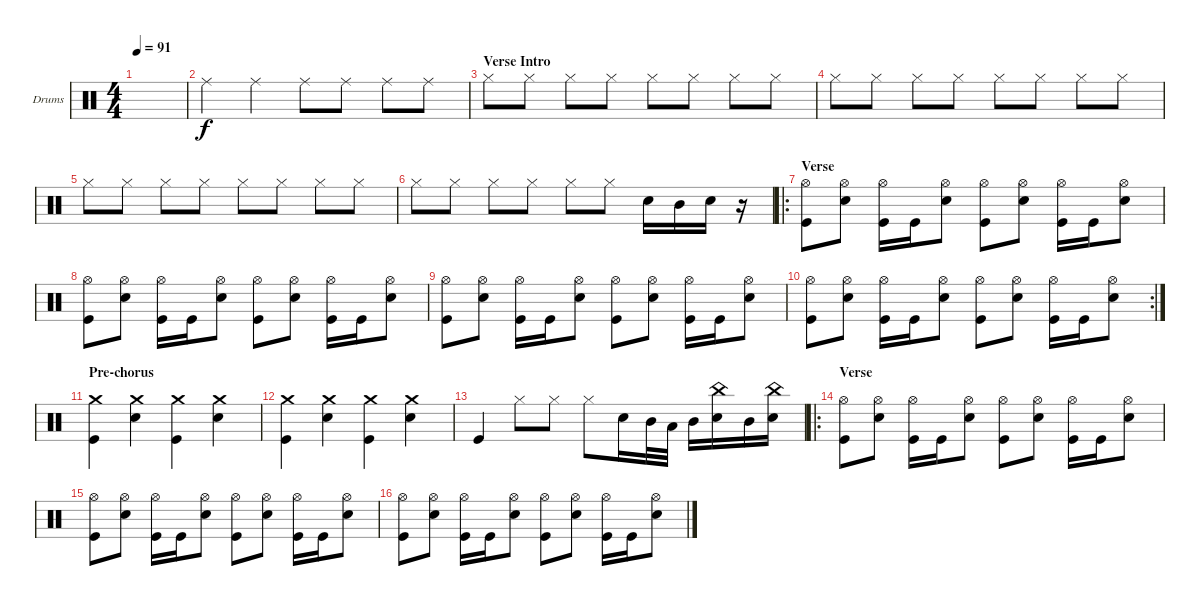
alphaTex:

\defaultSystemsLayout 4
\bracketExtendMode groupsimilarinstruments
\firstSystemTrackNameOrientation horizontal
\otherSystemsTrackNameOrientation horizontal
\track ("Drumkit" "Drums") {instrument percussion}
\staff {score}
\articulation defaults
\ts (4 4)
\tempo 91
\clef neutral
\scale
0.333333
\ks c
|
\scale
0.333333 "Ride (middle)".4 "Ride (middle)".4 "Ride (middle)".8 "Ride (middle)".8 "Ride (middle)".8 "Ride (middle)".8 |
\section ("" "Verse Intro")
\scale
0.333333 "Hi-Hat (closed)".8 "Hi-Hat (closed)".8 "Hi-Hat (closed)".8 "Hi-Hat (closed)".8 "Hi-Hat (closed)".8 "Hi-Hat (closed)".8 "Hi-Hat (closed)".8 "Hi-Hat (closed)".8 |
\scale
0.333333 "Hi-Hat (closed)".8 "Hi-Hat (closed)".8 "Hi-Hat (closed)".8 "Hi-Hat (closed)".8 "Hi-Hat (closed)".8 "Hi-Hat (closed)".8 "Hi-Hat (closed)".8 "Hi-Hat (closed)".8 |
\scale
0.333333 "Hi-Hat (closed)".8 "Hi-Hat (closed)".8 "Hi-Hat (closed)".8 "Hi-Hat (closed)".8 "Hi-Hat (closed)".8 "Hi-Hat (closed)".8 "Hi-Hat (closed)".8 "Hi-Hat (closed)".8 |
\scale
0.311475 "Hi-Hat (closed)".8 "Hi-Hat (closed)".8 "Hi-Hat (closed)".8 "Hi-Hat (closed)".8 "Hi-Hat (closed)".8 "Hi-Hat (closed)".8 "Snare (hit) 2".16 "Mid Tom (hit)".16 "Snare (hit) 2".16 r.16 |
\ro
\section ("" "Verse")
\scale
0.377049 ("Kick (hit)" "Hi-Hat (open)").8 ("Snare (hit) 2" "Hi-Hat (open)").8 ("Kick (hit)" "Hi-Hat (open)").16 "Kick (hit)".16 ("Snare (hit) 2" "Hi-Hat (open)").8 ("Kick (hit)" "Hi-Hat (open)").8 ("Snare (hit) 2" "Hi-Hat (open)").8 ("Kick (hit)" "Hi-Hat (open)").16 "Kick (hit)".16 ("Snare (hit) 2" "Hi-Hat (open)").8 |
\scale
0.311475 ("Kick (hit)" "Hi-Hat (open)").8 ("Snare (hit) 2" "Hi-Hat (open)").8 ("Kick (hit)" "Hi-Hat (open)").16 "Kick (hit)".16 ("Snare (hit) 2" "Hi-Hat (open)").8 ("Kick (hit)" "Hi-Hat (open)").8 ("Snare (hit) 2" "Hi-Hat (open)").8 ("Kick (hit)" "Hi-Hat (open)").16 "Kick (hit)".16 ("Snare (hit) 2" "Hi-Hat (open)").8 |
\scale
0.322034 ("Kick (hit)" "Hi-Hat (open)").8 ("Snare (hit) 2" "Hi-Hat (open)").8 ("Kick (hit)" "Hi-Hat (open)").16 "Kick (hit)".16 ("Snare (hit) 2" "Hi-Hat (open)").8 ("Kick (hit)" "Hi-Hat (open)").8 ("Snare (hit) 2" "Hi-Hat (open)").8 ("Kick (hit)" "Hi-Hat (open)").16 "Kick (hit)".16 ("Snare (hit) 2" "Hi-Hat (open)").8 |
\rc 2
\scale
0.355932 ("Kick (hit)" "Hi-Hat (open)").8 ("Snare (hit) 2" "Hi-Hat (open)").8 ("Kick (hit)" "Hi-Hat (open)").16 "Kick (hit)".16 ("Snare (hit) 2" "Hi-Hat (open)").8 ("Kick (hit)" "Hi-Hat (open)").8 ("Snare (hit) 2" "Hi-Hat (open)").8 ("Kick (hit)" "Hi-Hat (open)").16 "Kick (hit)".16 ("Snare (hit) 2" "Hi-Hat (open)").8 |
\section ("" "Pre-chorus")
\scale
0.322034 ("Kick (hit)" "Crash medium (hit)").4 ("Snare (hit) 2" "Crash medium (hit)").4 ("Kick (hit)" "Crash medium (hit)").4 ("Snare (hit) 2" "Crash medium (hit)").4 |
\scale
0.311475 ("Kick (hit)" "Crash medium (hit)").4 ("Snare (hit) 2" "Crash medium (hit)").4 ("Kick (hit)" "Crash medium (hit)").4 ("Snare (hit) 2" "Crash medium (hit)").4 |
\scale
0.311475 "Kick (hit)".4 "Hi-Hat (closed)".8 "Hi-Hat (closed)".8 "Hi-Hat (closed)".8 "Snare (hit) 2".16 "Mid Tom (hit)".32 "Low Tom (hit)".32 "Mid Tom (hit)".16 ("Snare (hit) 2" "China (hit)").16 "Mid Tom (hit)".16 ("Snare (hit) 2" "China (hit)").16 |
\ro
\section ("" "Verse")
\scale
0.377049 ("Kick (hit)" "Hi-Hat (open)").8 ("Snare (hit) 2" "Hi-Hat (open)").8 ("Kick (hit)" "Hi-Hat (open)").16 "Kick (hit)".16 ("Snare (hit) 2" "Hi-Hat (open)").8 ("Kick (hit)" "Hi-Hat (open)").8 ("Snare (hit) 2" "Hi-Hat (open)").8 ("Kick (hit)" "Hi-Hat (open)").16 "Kick (hit)".16 ("Snare (hit) 2" "Hi-Hat (open)").8 |
\scale
0.322034 ("Kick (hit)" "Hi-Hat (open)").8 ("Snare (hit) 2" "Hi-Hat (open)").8 ("Kick (hit)" "Hi-Hat (open)").16 "Kick (hit)".16 ("Snare (hit) 2" "Hi-Hat (open)").8 ("Kick (hit)" "Hi-Hat (open)").8 ("Snare (hit) 2" "Hi-Hat (open)").8 ("Kick (hit)" "Hi-Hat (open)").16 "Kick (hit)".16 ("Snare (hit) 2" "Hi-Hat (open)").8 |
\scale
0.322034 ("Kick (hit)" "Hi-Hat (open)").8 ("Snare (hit) 2" "Hi-Hat (open)").8 ("Kick (hit)" "Hi-Hat (open)").16 "Kick (hit)".16 ("Snare (hit) 2" "Hi-Hat (open)").8 ("Kick (hit)" "Hi-Hat (open)").8 ("Snare (hit) 2" "Hi-Hat (open)").8 ("Kick (hit)" "Hi-Hat (open)").16 "Kick (hit)".16 ("Snare (hit) 2" "Hi-Hat (open)").8
